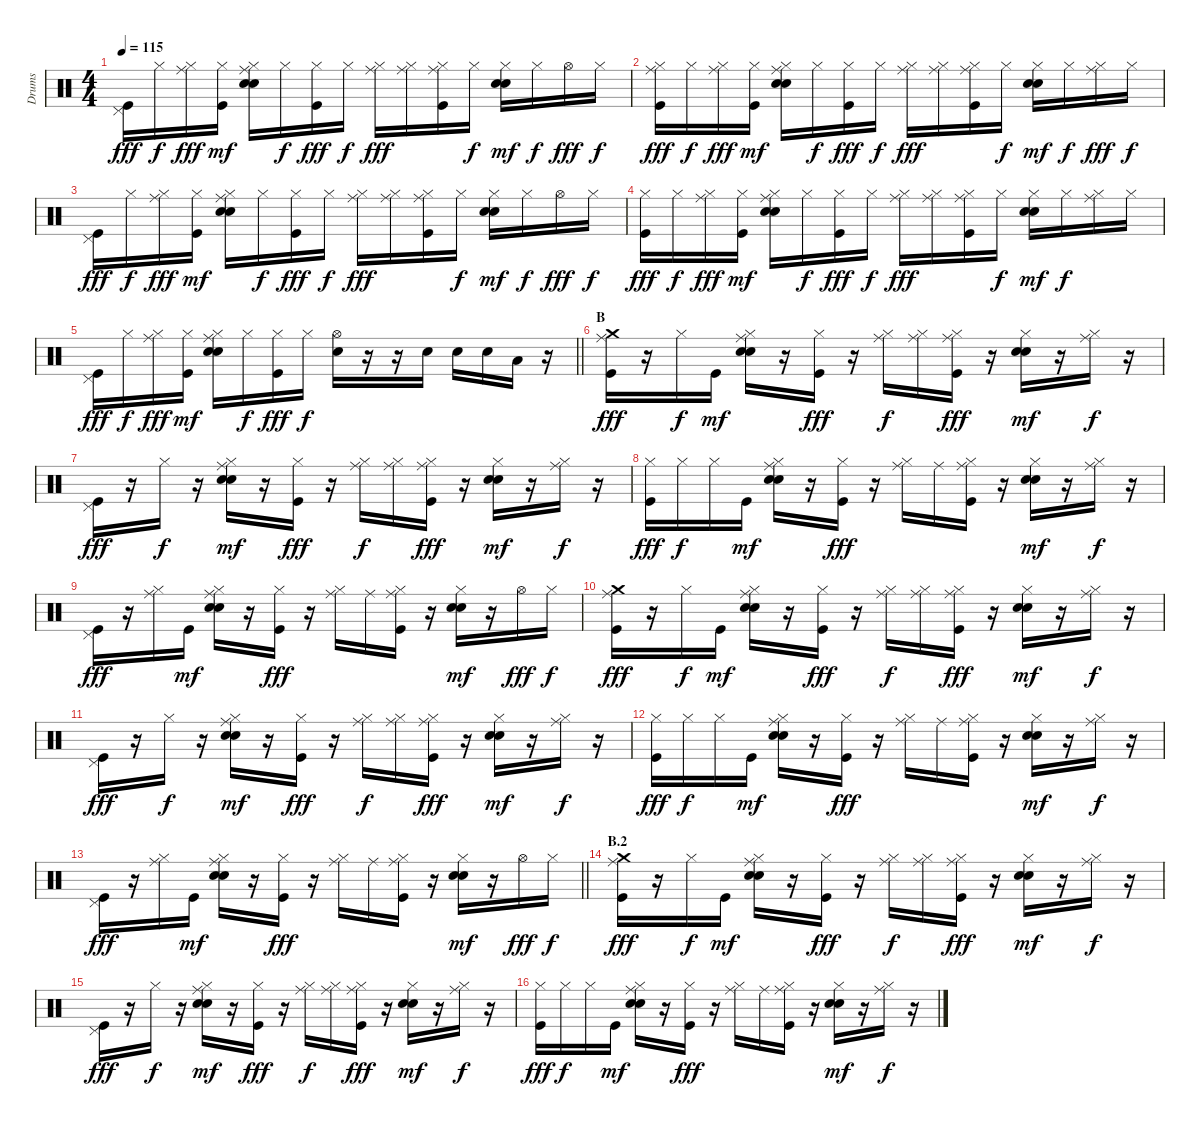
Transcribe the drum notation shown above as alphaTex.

\track ("Drums" "Drums") {instrument percussion}
\staff {score}
\articulation defaults
\ts (4 4)
\tempo 115
\clef neutral
\ks c
("Pedal Hi-Hat (hit)" "Kick (hit)").16{dy fff} "Hi-Hat (closed)".16{dy f} ("Hi-Hat (closed)" "Ride (middle)").16{dy fff} ("Hi-Hat (closed)" "Kick (hit)").16{dy mf} ("Hi-Hat (closed)" "Ride (middle)" "Electric Snare (hit)" "Snare (hit) 2").16 "Hi-Hat (closed)".16{dy f} ("Hi-Hat (closed)" "Kick (hit)").16{dy fff} "Hi-Hat (closed)".16{dy f} ("Hi-Hat (closed)" "Ride (middle)").16{dy fff} ("Hi-Hat (closed)" "Ride (middle)").16 ("Hi-Hat (closed)" "Ride (middle)" "Kick (hit)").16 "Hi-Hat (closed)".16{dy f} ("Hi-Hat (closed)" "Electric Snare (hit)" "Snare (hit) 2").16{dy mf} "Hi-Hat (closed)".16{dy f} "Hi-Hat (open)".16{dy fff} "Hi-Hat (closed)".16{dy f} |
("Hi-Hat (closed)" "Ride (middle)" "Kick (hit)").16{dy fff} "Hi-Hat (closed)".16{dy f} ("Hi-Hat (closed)" "Ride (middle)").16{dy fff} ("Hi-Hat (closed)" "Kick (hit)").16{dy mf} ("Hi-Hat (closed)" "Ride (middle)" "Electric Snare (hit)" "Snare (hit) 2").16 "Hi-Hat (closed)".16{dy f} ("Hi-Hat (closed)" "Kick (hit)").16{dy fff} "Hi-Hat (closed)".16{dy f} ("Hi-Hat (closed)" "Ride (middle)").16{dy fff} ("Hi-Hat (closed)" "Ride (middle)").16 ("Hi-Hat (closed)" "Ride (middle)" "Kick (hit)").16 "Hi-Hat (closed)".16{dy f} ("Hi-Hat (closed)" "Electric Snare (hit)" "Snare (hit) 2").16{dy mf} "Hi-Hat (closed)".16{dy f} ("Hi-Hat (closed)" "Ride (middle)").16{dy fff} "Hi-Hat (closed)".16{dy f} |
("Pedal Hi-Hat (hit)" "Kick (hit)").16{dy fff} "Hi-Hat (closed)".16{dy f} ("Hi-Hat (closed)" "Ride (middle)").16{dy fff} ("Hi-Hat (closed)" "Kick (hit)").16{dy mf} ("Hi-Hat (closed)" "Ride (middle)" "Electric Snare (hit)" "Snare (hit) 2").16 "Hi-Hat (closed)".16{dy f} ("Hi-Hat (closed)" "Kick (hit)").16{dy fff} "Hi-Hat (closed)".16{dy f} ("Hi-Hat (closed)" "Ride (middle)").16{dy fff} ("Hi-Hat (closed)" "Ride (middle)").16 ("Hi-Hat (closed)" "Ride (middle)" "Kick (hit)").16 "Hi-Hat (closed)".16{dy f} ("Hi-Hat (closed)" "Electric Snare (hit)" "Snare (hit) 2").16{dy mf} "Hi-Hat (closed)".16{dy f} "Hi-Hat (open)".16{dy fff} "Hi-Hat (closed)".16{dy f} |
("Hi-Hat (closed)" "Kick (hit)").16{dy fff} "Hi-Hat (closed)".16{dy f} ("Hi-Hat (closed)" "Ride (middle)").16{dy fff} ("Hi-Hat (closed)" "Kick (hit)").16{dy mf} ("Hi-Hat (closed)" "Ride (middle)" "Electric Snare (hit)" "Snare (hit) 2").16 "Hi-Hat (closed)".16{dy f} ("Hi-Hat (closed)" "Kick (hit)").16{dy fff} "Hi-Hat (closed)".16{dy f} ("Hi-Hat (closed)" "Ride (middle)").16{dy fff} ("Hi-Hat (closed)" "Ride (middle)").16 ("Hi-Hat (closed)" "Ride (middle)" "Kick (hit)").16 "Hi-Hat (closed)".16{dy f} ("Hi-Hat (closed)" "Electric Snare (hit)" "Snare (hit) 2").16{dy mf} "Hi-Hat (closed)".16{dy f} ("Hi-Hat (closed)" "Ride (middle)").16 "Hi-Hat (closed)".16 |
\barLineRight lightlight
("Pedal Hi-Hat (hit)" "Kick (hit)").16{dy fff} "Hi-Hat (closed)".16{dy f} ("Hi-Hat (closed)" "Ride (middle)").16{dy fff} ("Hi-Hat (closed)" "Kick (hit)").16{dy mf} ("Hi-Hat (closed)" "Ride (middle)" "Electric Snare (hit)" "Snare (hit) 2").16 "Hi-Hat (closed)".16{dy f} ("Hi-Hat (closed)" "Kick (hit)").16{dy fff} "Hi-Hat (closed)".16{dy f} ("Hi-Hat (open)" "Snare (hit) 2").16 r.16 r.16 "Snare (hit) 2".16 "Snare (hit) 2".16 "Snare (hit) 2".16 "Low Tom (hit)".16 r.16 |
\section ("" "B")
("Crash medium (hit)" "Ride (middle)" "Kick (hit)").16{dy fff} r.16 "Hi-Hat (closed)".16{dy f} "Kick (hit)".16{dy mf} ("Hi-Hat (closed)" "Ride (middle)" "Electric Snare (hit)" "Snare (hit) 2").16 r.16 ("Hi-Hat (closed)" "Kick (hit)").16{dy fff} r.16 ("Hi-Hat (closed)" "Ride (middle)").16{dy f} ("Hi-Hat (closed)" "Ride (middle)").16 ("Hi-Hat (closed)" "Ride (middle)" "Kick (hit)").16{dy fff} r.16 ("Hi-Hat (closed)" "Electric Snare (hit)" "Snare (hit) 2").16{dy mf} r.16 ("Hi-Hat (closed)" "Ride (middle)").16{dy f} r.16 |
("Pedal Hi-Hat (hit)" "Kick (hit)").16{dy fff} r.16 "Hi-Hat (closed)".16{dy f} r.16 ("Hi-Hat (closed)" "Ride (middle)" "Electric Snare (hit)" "Snare (hit) 2").16{dy mf} r.16 ("Hi-Hat (closed)" "Kick (hit)").16{dy fff} r.16 ("Hi-Hat (closed)" "Ride (middle)").16{dy f} ("Hi-Hat (closed)" "Ride (middle)").16 ("Hi-Hat (closed)" "Ride (middle)" "Kick (hit)").16{dy fff} r.16 ("Hi-Hat (closed)" "Electric Snare (hit)" "Snare (hit) 2").16{dy mf} r.16 ("Hi-Hat (closed)" "Ride (middle)").16{dy f} r.16 |
("Hi-Hat (closed)" "Kick (hit)").16{dy fff} "Hi-Hat (closed)".16{dy f} "Hi-Hat (closed)".16 "Kick (hit)".16{dy mf} ("Hi-Hat (closed)" "Ride (middle)" "Electric Snare (hit)" "Snare (hit) 2").16 r.16 ("Hi-Hat (closed)" "Kick (hit)").16{dy fff} r.16 ("Hi-Hat (closed)" "Ride (middle)").16 "Ride (middle)".16 ("Hi-Hat (closed)" "Ride (middle)" "Kick (hit)").16 r.16 ("Hi-Hat (closed)" "Electric Snare (hit)" "Snare (hit) 2").16{dy mf} r.16 ("Hi-Hat (closed)" "Ride (middle)").16{dy f} r.16 |
("Pedal Hi-Hat (hit)" "Kick (hit)").16{dy fff} r.16 ("Hi-Hat (closed)" "Ride (middle)").16 "Kick (hit)".16{dy mf} ("Hi-Hat (closed)" "Ride (middle)" "Electric Snare (hit)" "Snare (hit) 2").16 r.16 ("Hi-Hat (closed)" "Kick (hit)").16{dy fff} r.16 ("Hi-Hat (closed)" "Ride (middle)").16 "Ride (middle)".16 ("Hi-Hat (closed)" "Ride (middle)" "Kick (hit)").16 r.16 ("Hi-Hat (closed)" "Electric Snare (hit)" "Snare (hit) 2").16{dy mf} r.16 "Hi-Hat (open)".16{dy fff} "Hi-Hat (closed)".16{dy f} |
("Crash medium (hit)" "Ride (middle)" "Kick (hit)").16{dy fff} r.16 "Hi-Hat (closed)".16{dy f} "Kick (hit)".16{dy mf} ("Hi-Hat (closed)" "Ride (middle)" "Electric Snare (hit)" "Snare (hit) 2").16 r.16 ("Hi-Hat (closed)" "Kick (hit)").16{dy fff} r.16 ("Hi-Hat (closed)" "Ride (middle)").16{dy f} ("Hi-Hat (closed)" "Ride (middle)").16 ("Hi-Hat (closed)" "Ride (middle)" "Kick (hit)").16{dy fff} r.16 ("Hi-Hat (closed)" "Electric Snare (hit)" "Snare (hit) 2").16{dy mf} r.16 ("Hi-Hat (closed)" "Ride (middle)").16{dy f} r.16 |
("Pedal Hi-Hat (hit)" "Kick (hit)").16{dy fff} r.16 "Hi-Hat (closed)".16{dy f} r.16 ("Hi-Hat (closed)" "Ride (middle)" "Electric Snare (hit)" "Snare (hit) 2").16{dy mf} r.16 ("Hi-Hat (closed)" "Kick (hit)").16{dy fff} r.16 ("Hi-Hat (closed)" "Ride (middle)").16{dy f} ("Hi-Hat (closed)" "Ride (middle)").16 ("Hi-Hat (closed)" "Ride (middle)" "Kick (hit)").16{dy fff} r.16 ("Hi-Hat (closed)" "Electric Snare (hit)" "Snare (hit) 2").16{dy mf} r.16 ("Hi-Hat (closed)" "Ride (middle)").16{dy f} r.16 |
("Hi-Hat (closed)" "Kick (hit)").16{dy fff} "Hi-Hat (closed)".16{dy f} "Hi-Hat (closed)".16 "Kick (hit)".16{dy mf} ("Hi-Hat (closed)" "Ride (middle)" "Electric Snare (hit)" "Snare (hit) 2").16 r.16 ("Hi-Hat (closed)" "Kick (hit)").16{dy fff} r.16 ("Hi-Hat (closed)" "Ride (middle)").16 "Ride (middle)".16 ("Hi-Hat (closed)" "Ride (middle)" "Kick (hit)").16 r.16 ("Hi-Hat (closed)" "Electric Snare (hit)" "Snare (hit) 2").16{dy mf} r.16 ("Hi-Hat (closed)" "Ride (middle)").16{dy f} r.16 |
\barLineRight lightlight
("Pedal Hi-Hat (hit)" "Kick (hit)").16{dy fff} r.16 ("Hi-Hat (closed)" "Ride (middle)").16 "Kick (hit)".16{dy mf} ("Hi-Hat (closed)" "Ride (middle)" "Electric Snare (hit)" "Snare (hit) 2").16 r.16 ("Hi-Hat (closed)" "Kick (hit)").16{dy fff} r.16 ("Hi-Hat (closed)" "Ride (middle)").16 "Ride (middle)".16 ("Hi-Hat (closed)" "Ride (middle)" "Kick (hit)").16 r.16 ("Hi-Hat (closed)" "Electric Snare (hit)" "Snare (hit) 2").16{dy mf} r.16 "Hi-Hat (open)".16{dy fff} "Hi-Hat (closed)".16{dy f} |
\section ("" "B.2")
("Crash medium (hit)" "Ride (middle)" "Kick (hit)").16{dy fff} r.16 "Hi-Hat (closed)".16{dy f} "Kick (hit)".16{dy mf} ("Hi-Hat (closed)" "Ride (middle)" "Electric Snare (hit)" "Snare (hit) 2").16 r.16 ("Hi-Hat (closed)" "Kick (hit)").16{dy fff} r.16 ("Hi-Hat (closed)" "Ride (middle)").16{dy f} ("Hi-Hat (closed)" "Ride (middle)").16 ("Hi-Hat (closed)" "Ride (middle)" "Kick (hit)").16{dy fff} r.16 ("Hi-Hat (closed)" "Electric Snare (hit)" "Snare (hit) 2").16{dy mf} r.16 ("Hi-Hat (closed)" "Ride (middle)").16{dy f} r.16 |
("Pedal Hi-Hat (hit)" "Kick (hit)").16{dy fff} r.16 "Hi-Hat (closed)".16{dy f} r.16 ("Hi-Hat (closed)" "Ride (middle)" "Electric Snare (hit)" "Snare (hit) 2").16{dy mf} r.16 ("Hi-Hat (closed)" "Kick (hit)").16{dy fff} r.16 ("Hi-Hat (closed)" "Ride (middle)").16{dy f} ("Hi-Hat (closed)" "Ride (middle)").16 ("Hi-Hat (closed)" "Ride (middle)" "Kick (hit)").16{dy fff} r.16 ("Hi-Hat (closed)" "Electric Snare (hit)" "Snare (hit) 2").16{dy mf} r.16 ("Hi-Hat (closed)" "Ride (middle)").16{dy f} r.16 |
("Hi-Hat (closed)" "Kick (hit)").16{dy fff} "Hi-Hat (closed)".16{dy f} "Hi-Hat (closed)".16 "Kick (hit)".16{dy mf} ("Hi-Hat (closed)" "Ride (middle)" "Electric Snare (hit)" "Snare (hit) 2").16 r.16 ("Hi-Hat (closed)" "Kick (hit)").16{dy fff} r.16 ("Hi-Hat (closed)" "Ride (middle)").16 "Ride (middle)".16 ("Hi-Hat (closed)" "Ride (middle)" "Kick (hit)").16 r.16 ("Hi-Hat (closed)" "Electric Snare (hit)" "Snare (hit) 2").16{dy mf} r.16 ("Hi-Hat (closed)" "Ride (middle)").16{dy f} r.16
